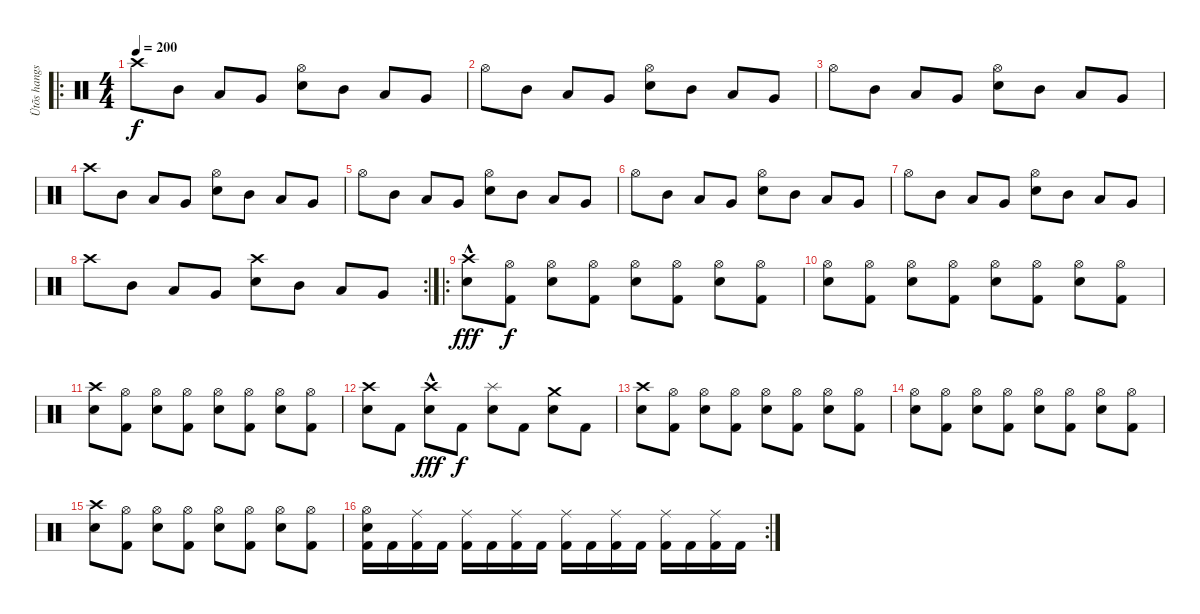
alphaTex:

\track ("Ütõs hangszer" "Ütõs hangs") {instrument percussion}
\staff {score}
\articulation defaults
\ro
\ts (4 4)
\tempo 200
\clef neutral
\ks c "Crash high (hit)".8{dy f} "Mid Tom (hit)".8 "Low Tom (hit)".8 "Very Low Tom (hit)".8
("Hi-Hat (open)" "Snare (hit) 2").8 "Mid Tom (hit)".8 "Low Tom (hit)".8 "Very Low Tom (hit)".8 |
"Hi-Hat (open)".8 "Mid Tom (hit)".8 "Low Tom (hit)".8 "Very Low Tom (hit)".8 ("Hi-Hat (open)" "Snare (hit) 2").8 "Mid Tom (hit)".8 "Low Tom (hit)".8 "Very Low Tom (hit)".8 |
"Hi-Hat (open)".8 "Mid Tom (hit)".8 "Low Tom (hit)".8 "Very Low Tom (hit)".8 ("Hi-Hat (open)" "Snare (hit) 2").8 "Mid Tom (hit)".8 "Low Tom (hit)".8 "Very Low Tom (hit)".8 |
"Crash high (hit)".8 "Mid Tom (hit)".8 "Low Tom (hit)".8 "Very Low Tom (hit)".8 ("Hi-Hat (open)" "Snare (hit) 2").8 "Mid Tom (hit)".8 "Low Tom (hit)".8 "Very Low Tom (hit)".8 |
"Hi-Hat (open)".8 "Mid Tom (hit)".8 "Low Tom (hit)".8 "Very Low Tom (hit)".8 ("Hi-Hat (open)" "Snare (hit) 2").8 "Mid Tom (hit)".8 "Low Tom (hit)".8 "Very Low Tom (hit)".8 |
"Hi-Hat (open)".8 "Mid Tom (hit)".8 "Low Tom (hit)".8 "Very Low Tom (hit)".8 ("Hi-Hat (open)" "Snare (hit) 2").8 "Mid Tom (hit)".8 "Low Tom (hit)".8 "Very Low Tom (hit)".8 |
"Hi-Hat (open)".8 "Mid Tom (hit)".8 "Low Tom (hit)".8 "Very Low Tom (hit)".8 ("Hi-Hat (open)" "Snare (hit) 2").8 "Mid Tom (hit)".8 "Low Tom (hit)".8 "Very Low Tom (hit)".8 |
\rc 2 "Crash high (hit)".8 "Mid Tom (hit)".8 "Low Tom (hit)".8 "Very Low Tom (hit)".8
("Crash high (hit)" "Snare (hit) 2").8 "Mid Tom (hit)".8 "Low Tom (hit)".8 "Very Low Tom (hit)".8 |
\ro
("Crash high (hit)"{hac} "Snare (hit) 2").8{dy fff} ("Hi-Hat (open)" "Kick (hit) 2").8{dy f} ("Hi-Hat (open)" "Snare (hit) 2").8 ("Hi-Hat (open)" "Kick (hit) 2").8 ("Hi-Hat (open)" "Snare (hit) 2").8 ("Hi-Hat (open)" "Kick (hit) 2").8 ("Hi-Hat (open)" "Snare (hit) 2").8 ("Hi-Hat (open)" "Kick (hit) 2").8 |
("Hi-Hat (open)" "Snare (hit) 2").8 ("Hi-Hat (open)" "Kick (hit) 2").8 ("Hi-Hat (open)" "Snare (hit) 2").8 ("Hi-Hat (open)" "Kick (hit) 2").8 ("Hi-Hat (open)" "Snare (hit) 2").8 ("Hi-Hat (open)" "Kick (hit) 2").8 ("Hi-Hat (open)" "Snare (hit) 2").8 ("Hi-Hat (open)" "Kick (hit) 2").8 |
("Crash high (hit)" "Snare (hit) 2").8 ("Hi-Hat (open)" "Kick (hit) 2").8 ("Hi-Hat (open)" "Snare (hit) 2").8 ("Hi-Hat (open)" "Kick (hit) 2").8 ("Hi-Hat (open)" "Snare (hit) 2").8 ("Hi-Hat (open)" "Kick (hit) 2").8 ("Hi-Hat (open)" "Snare (hit) 2").8 ("Hi-Hat (open)" "Kick (hit) 2").8 |
("Crash high (hit)" "Snare (hit) 2").8 "Kick (hit) 2".8 ("Crash high (hit)"{hac} "Snare (hit) 2").8{dy fff} "Kick (hit) 2".8{dy f} ("Splash (hit)" "Snare (hit) 2").8 "Kick (hit) 2".8 ("Crash medium (hit)" "Snare (hit) 2").8 "Kick (hit) 2".8 |
("Crash high (hit)" "Snare (hit) 2").8 ("Hi-Hat (open)" "Kick (hit) 2").8 ("Hi-Hat (open)" "Snare (hit) 2").8 ("Hi-Hat (open)" "Kick (hit) 2").8 ("Hi-Hat (open)" "Snare (hit) 2").8 ("Hi-Hat (open)" "Kick (hit) 2").8 ("Hi-Hat (open)" "Snare (hit) 2").8 ("Hi-Hat (open)" "Kick (hit) 2").8 |
("Hi-Hat (open)" "Snare (hit) 2").8 ("Hi-Hat (open)" "Kick (hit) 2").8 ("Hi-Hat (open)" "Snare (hit) 2").8 ("Hi-Hat (open)" "Kick (hit) 2").8 ("Hi-Hat (open)" "Snare (hit) 2").8 ("Hi-Hat (open)" "Kick (hit) 2").8 ("Hi-Hat (open)" "Snare (hit) 2").8 ("Hi-Hat (open)" "Kick (hit) 2").8 |
("Crash high (hit)" "Snare (hit) 2").8 ("Hi-Hat (open)" "Kick (hit) 2").8 ("Hi-Hat (open)" "Snare (hit) 2").8 ("Hi-Hat (open)" "Kick (hit) 2").8 ("Hi-Hat (open)" "Snare (hit) 2").8 ("Hi-Hat (open)" "Kick (hit) 2").8 ("Hi-Hat (open)" "Snare (hit) 2").8 ("Hi-Hat (open)" "Kick (hit) 2").8 |
\rc 2
("Hi-Hat (open)" "Snare (hit) 2" "Kick (hit) 2").16 "Kick (hit) 2".16 ("Ride (middle)" "Kick (hit) 2").16 "Kick (hit) 2".16 ("Ride (middle)" "Kick (hit) 2").16 "Kick (hit) 2".16 ("Ride (middle)" "Kick (hit) 2").16 "Kick (hit) 2".16 ("Ride (middle)" "Kick (hit) 2").16 "Kick (hit) 2".16 ("Ride (middle)" "Kick (hit) 2").16 "Kick (hit) 2".16 ("Ride (middle)" "Kick (hit) 2").16 "Kick (hit) 2".16 ("Ride (middle)" "Kick (hit) 2").16 "Kick (hit) 2".16
